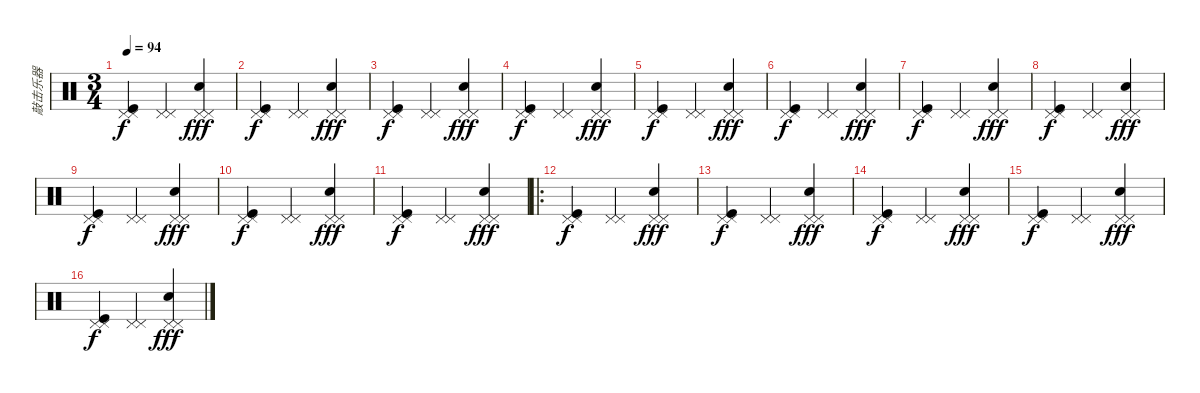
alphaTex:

\track ("敲击乐器" "敲击乐器") {instrument percussion}
\staff {score}
\articulation defaults
\ts (3 4)
\tempo 94
\clef neutral
\ks c
("Pedal Hi-Hat (hit)" "Pedal Hi-Hat (hit)" "Kick (hit)").4{dy f} ("Pedal Hi-Hat (hit)" "Pedal Hi-Hat (hit)").4 ("Pedal Hi-Hat (hit)" "Pedal Hi-Hat (hit)" "Snare (hit) 2").4{dy fff} |
("Pedal Hi-Hat (hit)" "Pedal Hi-Hat (hit)" "Kick (hit)").4{dy f} ("Pedal Hi-Hat (hit)" "Pedal Hi-Hat (hit)").4 ("Pedal Hi-Hat (hit)" "Pedal Hi-Hat (hit)" "Snare (hit) 2").4{dy fff} |
("Pedal Hi-Hat (hit)" "Pedal Hi-Hat (hit)" "Kick (hit)").4{dy f} ("Pedal Hi-Hat (hit)" "Pedal Hi-Hat (hit)").4 ("Pedal Hi-Hat (hit)" "Pedal Hi-Hat (hit)" "Snare (hit) 2").4{dy fff} |
("Pedal Hi-Hat (hit)" "Pedal Hi-Hat (hit)" "Kick (hit)").4{dy f} ("Pedal Hi-Hat (hit)" "Pedal Hi-Hat (hit)").4 ("Pedal Hi-Hat (hit)" "Pedal Hi-Hat (hit)" "Snare (hit) 2").4{dy fff} |
("Pedal Hi-Hat (hit)" "Pedal Hi-Hat (hit)" "Kick (hit)").4{dy f} ("Pedal Hi-Hat (hit)" "Pedal Hi-Hat (hit)").4 ("Pedal Hi-Hat (hit)" "Pedal Hi-Hat (hit)" "Snare (hit) 2").4{dy fff} |
("Pedal Hi-Hat (hit)" "Pedal Hi-Hat (hit)" "Kick (hit)").4{dy f} ("Pedal Hi-Hat (hit)" "Pedal Hi-Hat (hit)").4 ("Pedal Hi-Hat (hit)" "Pedal Hi-Hat (hit)" "Snare (hit) 2").4{dy fff} |
("Pedal Hi-Hat (hit)" "Pedal Hi-Hat (hit)" "Kick (hit)").4{dy f} ("Pedal Hi-Hat (hit)" "Pedal Hi-Hat (hit)").4 ("Pedal Hi-Hat (hit)" "Pedal Hi-Hat (hit)" "Snare (hit) 2").4{dy fff} |
("Pedal Hi-Hat (hit)" "Pedal Hi-Hat (hit)" "Kick (hit)").4{dy f} ("Pedal Hi-Hat (hit)" "Pedal Hi-Hat (hit)").4 ("Pedal Hi-Hat (hit)" "Pedal Hi-Hat (hit)" "Snare (hit) 2").4{dy fff} |
("Pedal Hi-Hat (hit)" "Pedal Hi-Hat (hit)" "Kick (hit)").4{dy f} ("Pedal Hi-Hat (hit)" "Pedal Hi-Hat (hit)").4 ("Pedal Hi-Hat (hit)" "Pedal Hi-Hat (hit)" "Snare (hit) 2").4{dy fff} |
("Pedal Hi-Hat (hit)" "Pedal Hi-Hat (hit)" "Kick (hit)").4{dy f} ("Pedal Hi-Hat (hit)" "Pedal Hi-Hat (hit)").4 ("Pedal Hi-Hat (hit)" "Pedal Hi-Hat (hit)" "Snare (hit) 2").4{dy fff} |
("Pedal Hi-Hat (hit)" "Pedal Hi-Hat (hit)" "Kick (hit)").4{dy f} ("Pedal Hi-Hat (hit)" "Pedal Hi-Hat (hit)").4 ("Pedal Hi-Hat (hit)" "Pedal Hi-Hat (hit)" "Snare (hit) 2").4{dy fff} |
\ro
("Pedal Hi-Hat (hit)" "Pedal Hi-Hat (hit)" "Kick (hit)").4{dy f} ("Pedal Hi-Hat (hit)" "Pedal Hi-Hat (hit)").4 ("Pedal Hi-Hat (hit)" "Pedal Hi-Hat (hit)" "Snare (hit) 2").4{dy fff} |
("Pedal Hi-Hat (hit)" "Pedal Hi-Hat (hit)" "Kick (hit)").4{dy f} ("Pedal Hi-Hat (hit)" "Pedal Hi-Hat (hit)").4 ("Pedal Hi-Hat (hit)" "Pedal Hi-Hat (hit)" "Snare (hit) 2").4{dy fff} |
("Pedal Hi-Hat (hit)" "Pedal Hi-Hat (hit)" "Kick (hit)").4{dy f} ("Pedal Hi-Hat (hit)" "Pedal Hi-Hat (hit)").4 ("Pedal Hi-Hat (hit)" "Pedal Hi-Hat (hit)" "Snare (hit) 2").4{dy fff} |
("Pedal Hi-Hat (hit)" "Pedal Hi-Hat (hit)" "Kick (hit)").4{dy f} ("Pedal Hi-Hat (hit)" "Pedal Hi-Hat (hit)").4 ("Pedal Hi-Hat (hit)" "Pedal Hi-Hat (hit)" "Snare (hit) 2").4{dy fff} |
("Pedal Hi-Hat (hit)" "Pedal Hi-Hat (hit)" "Kick (hit)").4{dy f} ("Pedal Hi-Hat (hit)" "Pedal Hi-Hat (hit)").4 ("Pedal Hi-Hat (hit)" "Pedal Hi-Hat (hit)" "Snare (hit) 2").4{dy fff}
